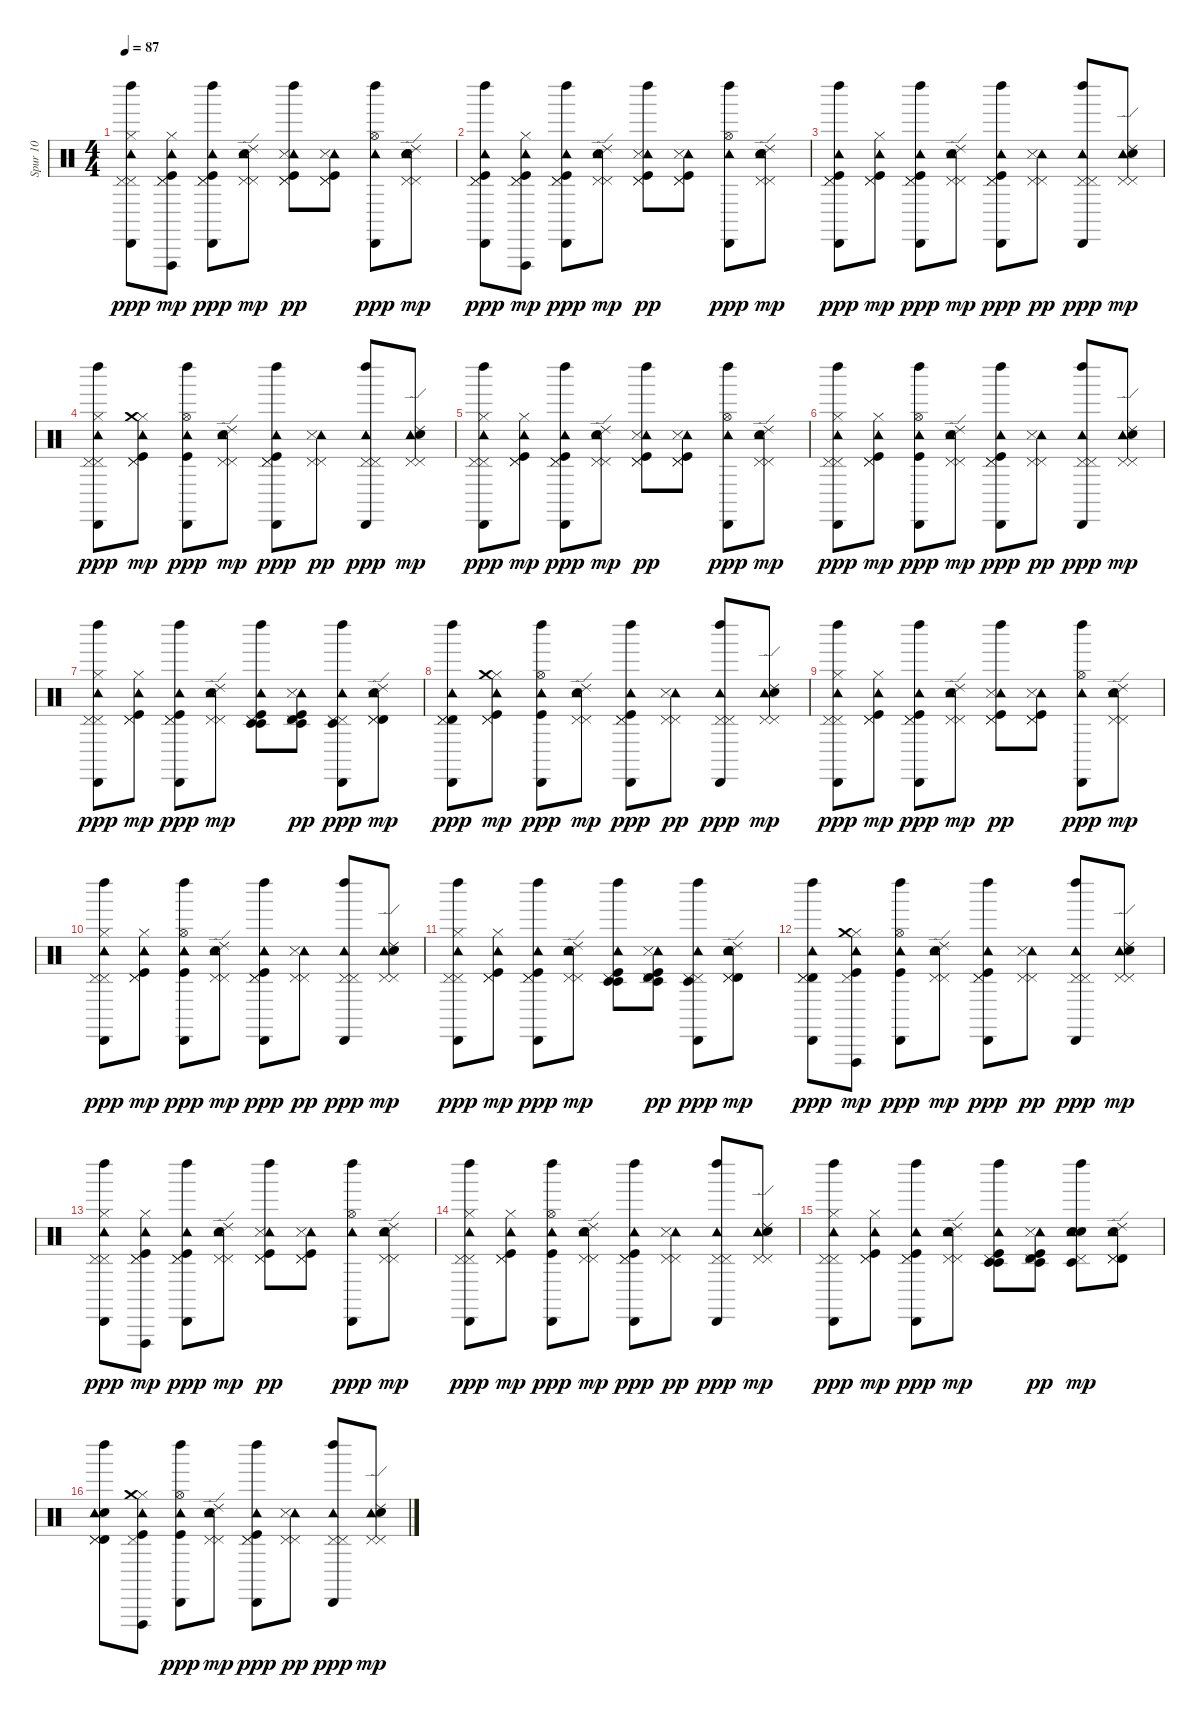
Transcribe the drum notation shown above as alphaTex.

\track ("Spur 10" "Spur 10") {instrument percussion}
\staff {score}
\articulation defaults
\ts (4 4)
\tempo 87
\clef neutral
\ks c
("Left Maraca (hit)" "Pedal Hi-Hat (hit)" "Tambourine (hit)" "Cabasa (hit)" "Pedal Hi-Hat (hit)" "Hi-Hat (closed)").8{dy ppp} ("Hi-Hat (closed)" "Vibraslap (hit)" "Pedal Hi-Hat (hit)" "Tambourine (hit)" "Kick (hit)" "Pedal Hi-Hat (hit)").8{dy mp} ("Left Maraca (hit)" "Pedal Hi-Hat (hit)" "Tambourine (hit)" "Kick (hit)" "Cabasa (hit)" "Pedal Hi-Hat (hit)").8{dy ppp} ("Pedal Hi-Hat (hit)" "Tambourine (hit)" "Electric Snare (hit)" "Ride (edge) 2" "Pedal Hi-Hat (hit)").8{dy mp} ("Kick (hit)" "Tambourine (hit)" "Left Maraca (hit)" "Pedal Hi-Hat (hit)" "Pedal Hi-Hat (hit)" "Snare (side stick) 3").8{dy pp} ("Tambourine (hit)" "Pedal Hi-Hat (hit)" "Kick (hit)" "Snare (side stick) 3" "Pedal Hi-Hat (hit)").8 ("Left Maraca (hit)" "Tambourine (hit)" "Hi-Hat (open)" "Cabasa (hit)").8{dy ppp} ("Ride (edge) 2" "Tambourine (hit)" "Pedal Hi-Hat (hit)" "Electric Snare (hit)" "Electric Snare (hit)" "Pedal Hi-Hat (hit)").8{dy mp} |
("Pedal Hi-Hat (hit)" "Left Maraca (hit)" "Tambourine (hit)" "Kick (hit)" "Pedal Hi-Hat (hit)" "Cabasa (hit)").8{dy ppp} ("Hi-Hat (closed)" "Vibraslap (hit)" "Pedal Hi-Hat (hit)" "Tambourine (hit)" "Kick (hit)" "Pedal Hi-Hat (hit)").8{dy mp} ("Left Maraca (hit)" "Pedal Hi-Hat (hit)" "Tambourine (hit)" "Kick (hit)" "Cabasa (hit)" "Pedal Hi-Hat (hit)").8{dy ppp} ("Pedal Hi-Hat (hit)" "Tambourine (hit)" "Electric Snare (hit)" "Ride (edge) 2" "Pedal Hi-Hat (hit)").8{dy mp} ("Kick (hit)" "Tambourine (hit)" "Left Maraca (hit)" "Pedal Hi-Hat (hit)" "Pedal Hi-Hat (hit)" "Snare (side stick) 3").8{dy pp} ("Tambourine (hit)" "Pedal Hi-Hat (hit)" "Kick (hit)" "Snare (side stick) 3" "Pedal Hi-Hat (hit)").8 ("Left Maraca (hit)" "Tambourine (hit)" "Hi-Hat (open)" "Cabasa (hit)").8{dy ppp} ("Ride (edge) 2" "Tambourine (hit)" "Pedal Hi-Hat (hit)" "Electric Snare (hit)" "Electric Snare (hit)" "Pedal Hi-Hat (hit)").8{dy mp} |
("Pedal Hi-Hat (hit)" "Left Maraca (hit)" "Tambourine (hit)" "Kick (hit)" "Pedal Hi-Hat (hit)" "Cabasa (hit)").8{dy ppp} ("Hi-Hat (closed)" "Pedal Hi-Hat (hit)" "Tambourine (hit)" "Kick (hit)" "Pedal Hi-Hat (hit)").8{dy mp} ("Pedal Hi-Hat (hit)" "Left Maraca (hit)" "Tambourine (hit)" "Kick (hit)" "Pedal Hi-Hat (hit)" "Cabasa (hit)").8{dy ppp} ("Ride (edge) 2" "Pedal Hi-Hat (hit)" "Tambourine (hit)" "Electric Snare (hit)" "Pedal Hi-Hat (hit)").8{dy mp} ("Pedal Hi-Hat (hit)" "Kick (hit)" "Tambourine (hit)" "Left Maraca (hit)" "Cabasa (hit)" "Pedal Hi-Hat (hit)").8{dy ppp} ("Pedal Hi-Hat (hit)" "Tambourine (hit)" "Snare (side stick) 3" "Pedal Hi-Hat (hit)").8{dy pp} ("Left Maraca (hit)" "Pedal Hi-Hat (hit)" "Tambourine (hit)" "Cabasa (hit)" "Pedal Hi-Hat (hit)").8{dy ppp} ("Ride (edge) 2" "Pedal Hi-Hat (hit)" "Tambourine (hit)" "Electric Snare (hit)" "Pedal Hi-Hat (hit)").8{dy mp} |
("Left Maraca (hit)" "Pedal Hi-Hat (hit)" "Tambourine (hit)" "Cabasa (hit)" "Pedal Hi-Hat (hit)" "Hi-Hat (closed)").8{dy ppp} ("Hi-Hat (closed)" "Pedal Hi-Hat (hit)" "Tambourine (hit)" "Kick (hit)" "Crash medium (hit)" "Pedal Hi-Hat (hit)").8{dy mp} ("Left Maraca (hit)" "Hi-Hat (open)" "Tambourine (hit)" "Kick (hit)" "Cabasa (hit)").8{dy ppp} ("Ride (edge) 2" "Pedal Hi-Hat (hit)" "Tambourine (hit)" "Electric Snare (hit)" "Pedal Hi-Hat (hit)").8{dy mp} ("Pedal Hi-Hat (hit)" "Kick (hit)" "Tambourine (hit)" "Left Maraca (hit)" "Cabasa (hit)" "Pedal Hi-Hat (hit)").8{dy ppp} ("Pedal Hi-Hat (hit)" "Tambourine (hit)" "Snare (side stick) 3" "Pedal Hi-Hat (hit)").8{dy pp} ("Left Maraca (hit)" "Pedal Hi-Hat (hit)" "Tambourine (hit)" "Cabasa (hit)" "Pedal Hi-Hat (hit)").8{dy ppp} ("Ride (edge) 2" "Pedal Hi-Hat (hit)" "Tambourine (hit)" "Electric Snare (hit)" "Pedal Hi-Hat (hit)").8{dy mp} |
("Left Maraca (hit)" "Pedal Hi-Hat (hit)" "Tambourine (hit)" "Cabasa (hit)" "Pedal Hi-Hat (hit)" "Hi-Hat (closed)").8{dy ppp} ("Hi-Hat (closed)" "Pedal Hi-Hat (hit)" "Tambourine (hit)" "Kick (hit)" "Pedal Hi-Hat (hit)").8{dy mp} ("Left Maraca (hit)" "Pedal Hi-Hat (hit)" "Tambourine (hit)" "Kick (hit)" "Cabasa (hit)" "Pedal Hi-Hat (hit)").8{dy ppp} ("Pedal Hi-Hat (hit)" "Tambourine (hit)" "Electric Snare (hit)" "Ride (edge) 2" "Pedal Hi-Hat (hit)").8{dy mp} ("Kick (hit)" "Tambourine (hit)" "Left Maraca (hit)" "Pedal Hi-Hat (hit)" "Pedal Hi-Hat (hit)" "Snare (side stick) 3").8{dy pp} ("Tambourine (hit)" "Pedal Hi-Hat (hit)" "Kick (hit)" "Snare (side stick) 3" "Pedal Hi-Hat (hit)").8 ("Left Maraca (hit)" "Tambourine (hit)" "Hi-Hat (open)" "Cabasa (hit)").8{dy ppp} ("Ride (edge) 2" "Tambourine (hit)" "Pedal Hi-Hat (hit)" "Electric Snare (hit)" "Pedal Hi-Hat (hit)").8{dy mp} |
("Pedal Hi-Hat (hit)" "Left Maraca (hit)" "Tambourine (hit)" "Pedal Hi-Hat (hit)" "Cabasa (hit)" "Hi-Hat (closed)").8{dy ppp} ("Hi-Hat (closed)" "Pedal Hi-Hat (hit)" "Tambourine (hit)" "Kick (hit)" "Pedal Hi-Hat (hit)").8{dy mp} ("Left Maraca (hit)" "Hi-Hat (open)" "Tambourine (hit)" "Kick (hit)" "Cabasa (hit)").8{dy ppp} ("Ride (edge) 2" "Pedal Hi-Hat (hit)" "Tambourine (hit)" "Electric Snare (hit)" "Pedal Hi-Hat (hit)").8{dy mp} ("Pedal Hi-Hat (hit)" "Kick (hit)" "Tambourine (hit)" "Left Maraca (hit)" "Cabasa (hit)" "Pedal Hi-Hat (hit)").8{dy ppp} ("Pedal Hi-Hat (hit)" "Tambourine (hit)" "Snare (side stick) 3" "Pedal Hi-Hat (hit)").8{dy pp} ("Left Maraca (hit)" "Pedal Hi-Hat (hit)" "Tambourine (hit)" "Cabasa (hit)" "Pedal Hi-Hat (hit)").8{dy ppp} ("Ride (edge) 2" "Pedal Hi-Hat (hit)" "Tambourine (hit)" "Electric Snare (hit)" "Pedal Hi-Hat (hit)").8{dy mp} |
("Left Maraca (hit)" "Pedal Hi-Hat (hit)" "Tambourine (hit)" "Cabasa (hit)" "Pedal Hi-Hat (hit)" "Hi-Hat (closed)").8{dy ppp} ("Hi-Hat (closed)" "Pedal Hi-Hat (hit)" "Tambourine (hit)" "Kick (hit)" "Pedal Hi-Hat (hit)").8{dy mp} ("Left Maraca (hit)" "Pedal Hi-Hat (hit)" "Tambourine (hit)" "Kick (hit)" "Cabasa (hit)" "Pedal Hi-Hat (hit)").8{dy ppp} ("Pedal Hi-Hat (hit)" "Tambourine (hit)" "Electric Snare (hit)" "Ride (edge) 2" "Pedal Hi-Hat (hit)").8{dy mp} ("Timbale low (hit)" "Kick (hit)" "Tambourine (hit)" "Left Maraca (hit)" "Pedal Hi-Hat (hit)" "Timbale low (hit)").8 ("Timbale high (hit)" "Tambourine (hit)" "Pedal Hi-Hat (hit)" "Kick (hit)" "Timbale low (hit)" "Snare (side stick) 3").8{dy pp} ("Pedal Hi-Hat (hit)" "Left Maraca (hit)" "Tambourine (hit)" "Timbale low (hit)" "Pedal Hi-Hat (hit)" "Cabasa (hit)").8{dy ppp} ("Timbale high (hit)" "Ride (edge) 2" "Tambourine (hit)" "Pedal Hi-Hat (hit)" "Electric Snare (hit)" "Pedal Hi-Hat (hit)").8{dy mp} |
("Timbale high (hit)" "Pedal Hi-Hat (hit)" "Left Maraca (hit)" "Tambourine (hit)" "Pedal Hi-Hat (hit)" "Cabasa (hit)").8{dy ppp} ("Hi-Hat (closed)" "Pedal Hi-Hat (hit)" "Tambourine (hit)" "Kick (hit)" "Crash medium (hit)" "Pedal Hi-Hat (hit)").8{dy mp} ("Left Maraca (hit)" "Hi-Hat (open)" "Tambourine (hit)" "Kick (hit)" "Cabasa (hit)").8{dy ppp} ("Ride (edge) 2" "Pedal Hi-Hat (hit)" "Tambourine (hit)" "Electric Snare (hit)" "Pedal Hi-Hat (hit)").8{dy mp} ("Pedal Hi-Hat (hit)" "Kick (hit)" "Tambourine (hit)" "Left Maraca (hit)" "Cabasa (hit)" "Pedal Hi-Hat (hit)").8{dy ppp} ("Pedal Hi-Hat (hit)" "Tambourine (hit)" "Snare (side stick) 3" "Pedal Hi-Hat (hit)").8{dy pp} ("Left Maraca (hit)" "Pedal Hi-Hat (hit)" "Tambourine (hit)" "Cabasa (hit)" "Pedal Hi-Hat (hit)").8{dy ppp} ("Ride (edge) 2" "Pedal Hi-Hat (hit)" "Tambourine (hit)" "Electric Snare (hit)" "Pedal Hi-Hat (hit)").8{dy mp volume 14} |
("Left Maraca (hit)" "Pedal Hi-Hat (hit)" "Tambourine (hit)" "Cabasa (hit)" "Pedal Hi-Hat (hit)" "Hi-Hat (closed)").8{dy ppp} ("Hi-Hat (closed)" "Pedal Hi-Hat (hit)" "Tambourine (hit)" "Kick (hit)" "Pedal Hi-Hat (hit)").8{dy mp} ("Left Maraca (hit)" "Pedal Hi-Hat (hit)" "Tambourine (hit)" "Kick (hit)" "Cabasa (hit)" "Pedal Hi-Hat (hit)").8{dy ppp} ("Pedal Hi-Hat (hit)" "Tambourine (hit)" "Electric Snare (hit)" "Ride (edge) 2" "Pedal Hi-Hat (hit)").8{dy mp} ("Kick (hit)" "Tambourine (hit)" "Left Maraca (hit)" "Pedal Hi-Hat (hit)" "Pedal Hi-Hat (hit)" "Snare (side stick) 3").8{dy pp} ("Tambourine (hit)" "Pedal Hi-Hat (hit)" "Kick (hit)" "Snare (side stick) 3" "Pedal Hi-Hat (hit)").8 ("Left Maraca (hit)" "Tambourine (hit)" "Hi-Hat (open)" "Cabasa (hit)").8{dy ppp} ("Ride (edge) 2" "Tambourine (hit)" "Pedal Hi-Hat (hit)" "Electric Snare (hit)" "Pedal Hi-Hat (hit)").8{dy mp} |
("Pedal Hi-Hat (hit)" "Left Maraca (hit)" "Tambourine (hit)" "Pedal Hi-Hat (hit)" "Cabasa (hit)" "Hi-Hat (closed)").8{dy ppp} ("Hi-Hat (closed)" "Pedal Hi-Hat (hit)" "Tambourine (hit)" "Kick (hit)" "Pedal Hi-Hat (hit)").8{dy mp} ("Left Maraca (hit)" "Hi-Hat (open)" "Tambourine (hit)" "Kick (hit)" "Cabasa (hit)").8{dy ppp} ("Ride (edge) 2" "Pedal Hi-Hat (hit)" "Tambourine (hit)" "Electric Snare (hit)" "Pedal Hi-Hat (hit)").8{dy mp} ("Pedal Hi-Hat (hit)" "Kick (hit)" "Tambourine (hit)" "Left Maraca (hit)" "Cabasa (hit)" "Pedal Hi-Hat (hit)").8{dy ppp} ("Pedal Hi-Hat (hit)" "Tambourine (hit)" "Snare (side stick) 3" "Pedal Hi-Hat (hit)").8{dy pp} ("Left Maraca (hit)" "Pedal Hi-Hat (hit)" "Tambourine (hit)" "Cabasa (hit)" "Pedal Hi-Hat (hit)").8{dy ppp} ("Ride (edge) 2" "Pedal Hi-Hat (hit)" "Tambourine (hit)" "Electric Snare (hit)" "Pedal Hi-Hat (hit)").8{dy mp} |
("Left Maraca (hit)" "Pedal Hi-Hat (hit)" "Tambourine (hit)" "Cabasa (hit)" "Pedal Hi-Hat (hit)" "Hi-Hat (closed)").8{dy ppp} ("Hi-Hat (closed)" "Pedal Hi-Hat (hit)" "Tambourine (hit)" "Kick (hit)" "Pedal Hi-Hat (hit)").8{dy mp} ("Left Maraca (hit)" "Pedal Hi-Hat (hit)" "Tambourine (hit)" "Kick (hit)" "Cabasa (hit)" "Pedal Hi-Hat (hit)").8{dy ppp} ("Pedal Hi-Hat (hit)" "Tambourine (hit)" "Electric Snare (hit)" "Ride (edge) 2" "Pedal Hi-Hat (hit)").8{dy mp} ("Timbale low (hit)" "Kick (hit)" "Tambourine (hit)" "Left Maraca (hit)" "Pedal Hi-Hat (hit)" "Timbale low (hit)").8 ("Timbale high (hit)" "Tambourine (hit)" "Pedal Hi-Hat (hit)" "Kick (hit)" "Timbale low (hit)" "Snare (side stick) 3").8{dy pp} ("Pedal Hi-Hat (hit)" "Left Maraca (hit)" "Tambourine (hit)" "Timbale low (hit)" "Pedal Hi-Hat (hit)" "Cabasa (hit)").8{dy ppp} ("Timbale high (hit)" "Ride (edge) 2" "Tambourine (hit)" "Pedal Hi-Hat (hit)" "Electric Snare (hit)" "Pedal Hi-Hat (hit)").8{dy mp} |
("Timbale high (hit)" "Pedal Hi-Hat (hit)" "Left Maraca (hit)" "Tambourine (hit)" "Pedal Hi-Hat (hit)" "Cabasa (hit)").8{dy ppp} ("Hi-Hat (closed)" "Vibraslap (hit)" "Pedal Hi-Hat (hit)" "Tambourine (hit)" "Kick (hit)" "Crash medium (hit)").8{dy mp} ("Left Maraca (hit)" "Hi-Hat (open)" "Tambourine (hit)" "Kick (hit)" "Cabasa (hit)").8{dy ppp} ("Ride (edge) 2" "Pedal Hi-Hat (hit)" "Tambourine (hit)" "Electric Snare (hit)" "Pedal Hi-Hat (hit)").8{dy mp} ("Pedal Hi-Hat (hit)" "Kick (hit)" "Tambourine (hit)" "Left Maraca (hit)" "Cabasa (hit)" "Pedal Hi-Hat (hit)").8{dy ppp} ("Pedal Hi-Hat (hit)" "Tambourine (hit)" "Snare (side stick) 3" "Pedal Hi-Hat (hit)").8{dy pp} ("Left Maraca (hit)" "Pedal Hi-Hat (hit)" "Tambourine (hit)" "Cabasa (hit)" "Pedal Hi-Hat (hit)").8{dy ppp} ("Ride (edge) 2" "Pedal Hi-Hat (hit)" "Tambourine (hit)" "Electric Snare (hit)" "Pedal Hi-Hat (hit)").8{dy mp} |
("Left Maraca (hit)" "Pedal Hi-Hat (hit)" "Tambourine (hit)" "Cabasa (hit)" "Pedal Hi-Hat (hit)" "Hi-Hat (closed)").8{dy ppp} ("Hi-Hat (closed)" "Vibraslap (hit)" "Pedal Hi-Hat (hit)" "Tambourine (hit)" "Kick (hit)" "Pedal Hi-Hat (hit)").8{dy mp} ("Left Maraca (hit)" "Pedal Hi-Hat (hit)" "Tambourine (hit)" "Kick (hit)" "Cabasa (hit)" "Pedal Hi-Hat (hit)").8{dy ppp} ("Pedal Hi-Hat (hit)" "Tambourine (hit)" "Electric Snare (hit)" "Ride (edge) 2" "Pedal Hi-Hat (hit)").8{dy mp} ("Kick (hit)" "Tambourine (hit)" "Left Maraca (hit)" "Pedal Hi-Hat (hit)" "Pedal Hi-Hat (hit)" "Snare (side stick) 3").8{dy pp} ("Tambourine (hit)" "Pedal Hi-Hat (hit)" "Kick (hit)" "Snare (side stick) 3" "Pedal Hi-Hat (hit)").8 ("Left Maraca (hit)" "Tambourine (hit)" "Hi-Hat (open)" "Cabasa (hit)").8{dy ppp} ("Ride (edge) 2" "Tambourine (hit)" "Pedal Hi-Hat (hit)" "Electric Snare (hit)" "Pedal Hi-Hat (hit)").8{dy mp} |
("Pedal Hi-Hat (hit)" "Left Maraca (hit)" "Tambourine (hit)" "Pedal Hi-Hat (hit)" "Cabasa (hit)" "Hi-Hat (closed)").8{dy ppp} ("Hi-Hat (closed)" "Pedal Hi-Hat (hit)" "Tambourine (hit)" "Kick (hit)" "Pedal Hi-Hat (hit)").8{dy mp} ("Left Maraca (hit)" "Hi-Hat (open)" "Tambourine (hit)" "Kick (hit)" "Cabasa (hit)").8{dy ppp} ("Ride (edge) 2" "Pedal Hi-Hat (hit)" "Tambourine (hit)" "Electric Snare (hit)" "Pedal Hi-Hat (hit)").8{dy mp} ("Pedal Hi-Hat (hit)" "Kick (hit)" "Tambourine (hit)" "Left Maraca (hit)" "Cabasa (hit)" "Pedal Hi-Hat (hit)").8{dy ppp} ("Pedal Hi-Hat (hit)" "Tambourine (hit)" "Snare (side stick) 3" "Pedal Hi-Hat (hit)").8{dy pp} ("Left Maraca (hit)" "Pedal Hi-Hat (hit)" "Tambourine (hit)" "Cabasa (hit)" "Pedal Hi-Hat (hit)").8{dy ppp} ("Ride (edge) 2" "Pedal Hi-Hat (hit)" "Tambourine (hit)" "Electric Snare (hit)" "Pedal Hi-Hat (hit)").8{dy mp} |
("Left Maraca (hit)" "Pedal Hi-Hat (hit)" "Tambourine (hit)" "Cabasa (hit)" "Pedal Hi-Hat (hit)" "Hi-Hat (closed)").8{dy ppp} ("Hi-Hat (closed)" "Pedal Hi-Hat (hit)" "Tambourine (hit)" "Kick (hit)" "Pedal Hi-Hat (hit)").8{dy mp} ("Left Maraca (hit)" "Pedal Hi-Hat (hit)" "Tambourine (hit)" "Kick (hit)" "Cabasa (hit)" "Pedal Hi-Hat (hit)").8{dy ppp} ("Pedal Hi-Hat (hit)" "Tambourine (hit)" "Electric Snare (hit)" "Ride (edge) 2" "Pedal Hi-Hat (hit)").8{dy mp} ("Timbale low (hit)" "Kick (hit)" "Tambourine (hit)" "Left Maraca (hit)" "Pedal Hi-Hat (hit)" "Timbale low (hit)").8 ("Timbale high (hit)" "Tambourine (hit)" "Pedal Hi-Hat (hit)" "Kick (hit)" "Timbale low (hit)" "Snare (side stick) 3").8{dy pp} ("Electric Snare (hit)" "Pedal Hi-Hat (hit)" "Left Maraca (hit)" "Tambourine (hit)" "Electric Snare (hit)" "Timbale low (hit)").8{dy mp} ("Timbale high (hit)" "Ride (edge) 2" "Tambourine (hit)" "Pedal Hi-Hat (hit)" "Electric Snare (hit)" "Pedal Hi-Hat (hit)").8 |
("Electric Snare (hit)" "Timbale high (hit)" "Pedal Hi-Hat (hit)" "Left Maraca (hit)" "Tambourine (hit)" "Pedal Hi-Hat (hit)").8 ("Hi-Hat (closed)" "Vibraslap (hit)" "Pedal Hi-Hat (hit)" "Tambourine (hit)" "Kick (hit)" "Crash medium (hit)").8 ("Left Maraca (hit)" "Hi-Hat (open)" "Tambourine (hit)" "Kick (hit)" "Cabasa (hit)").8{dy ppp} ("Ride (edge) 2" "Pedal Hi-Hat (hit)" "Tambourine (hit)" "Electric Snare (hit)" "Pedal Hi-Hat (hit)").8{dy mp} ("Pedal Hi-Hat (hit)" "Kick (hit)" "Tambourine (hit)" "Left Maraca (hit)" "Cabasa (hit)" "Pedal Hi-Hat (hit)").8{dy ppp} ("Pedal Hi-Hat (hit)" "Tambourine (hit)" "Snare (side stick) 3" "Pedal Hi-Hat (hit)").8{dy pp} ("Left Maraca (hit)" "Pedal Hi-Hat (hit)" "Tambourine (hit)" "Cabasa (hit)" "Pedal Hi-Hat (hit)").8{dy ppp} ("Ride (edge) 2" "Pedal Hi-Hat (hit)" "Tambourine (hit)" "Electric Snare (hit)" "Pedal Hi-Hat (hit)").8{dy mp}
